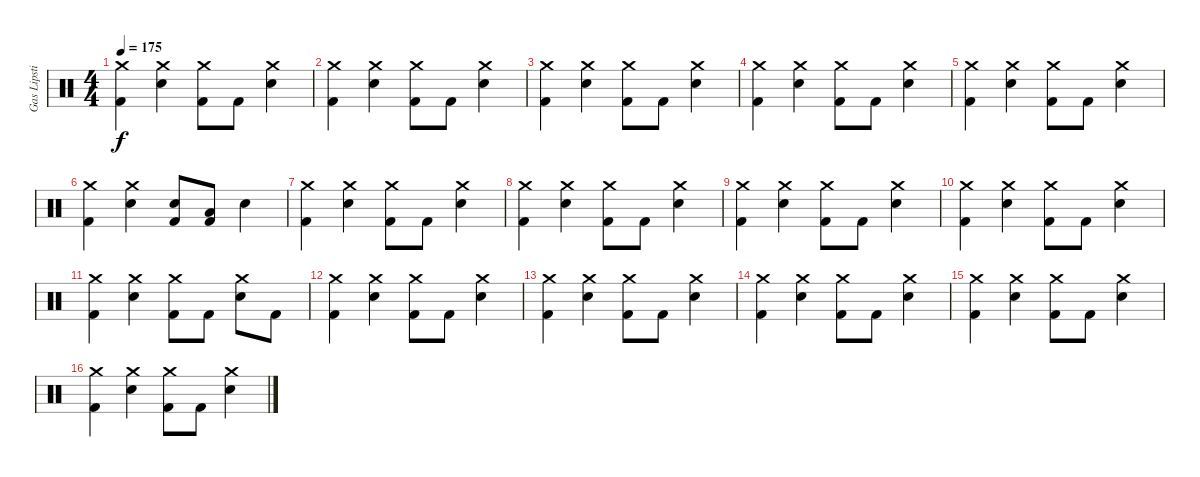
\track ("Gas Lipstick" "Gas Lipsti") {instrument percussion}
\staff {score}
\articulation defaults
\ts (4 4)
\tempo 175
\clef neutral
\ks c
("Kick (hit) 2" "Crash medium (hit)").4{dy f} ("Snare (hit) 2" "Crash medium (hit)").4 ("Kick (hit) 2" "Crash medium (hit)").8 "Kick (hit) 2".8 ("Snare (hit) 2" "Crash medium (hit)").4 |
("Kick (hit) 2" "Crash medium (hit)").4 ("Snare (hit) 2" "Crash medium (hit)").4 ("Kick (hit) 2" "Crash medium (hit)").8 "Kick (hit) 2".8 ("Snare (hit) 2" "Crash medium (hit)").4 |
("Kick (hit) 2" "Crash medium (hit)").4 ("Snare (hit) 2" "Crash medium (hit)").4 ("Kick (hit) 2" "Crash medium (hit)").8 "Kick (hit) 2".8 ("Snare (hit) 2" "Crash medium (hit)").4 |
("Kick (hit) 2" "Crash medium (hit)").4 ("Snare (hit) 2" "Crash medium (hit)").4 ("Kick (hit) 2" "Crash medium (hit)").8 "Kick (hit) 2".8 ("Snare (hit) 2" "Crash medium (hit)").4 |
("Kick (hit) 2" "Crash medium (hit)").4 ("Snare (hit) 2" "Crash medium (hit)").4 ("Kick (hit) 2" "Crash medium (hit)").8 "Kick (hit) 2".8 ("Snare (hit) 2" "Crash medium (hit)").4 |
("Kick (hit) 2" "Crash medium (hit)").4 ("Snare (hit) 2" "Crash medium (hit)").4 ("Kick (hit) 2" "Snare (hit) 2").8 ("Kick (hit) 2" "Low Floor Tom (hit)").8 "Snare (hit) 2".4 |
("Kick (hit) 2" "Crash medium (hit)").4 ("Snare (hit) 2" "Crash medium (hit)").4 ("Kick (hit) 2" "Crash medium (hit)").8 "Kick (hit) 2".8 ("Snare (hit) 2" "Crash medium (hit)").4 |
("Kick (hit) 2" "Crash medium (hit)").4 ("Snare (hit) 2" "Crash medium (hit)").4 ("Kick (hit) 2" "Crash medium (hit)").8 "Kick (hit) 2".8 ("Snare (hit) 2" "Crash medium (hit)").4 |
("Kick (hit) 2" "Crash medium (hit)").4 ("Snare (hit) 2" "Crash medium (hit)").4 ("Kick (hit) 2" "Crash medium (hit)").8 "Kick (hit) 2".8 ("Snare (hit) 2" "Crash medium (hit)").4 |
("Kick (hit) 2" "Crash medium (hit)").4 ("Snare (hit) 2" "Crash medium (hit)").4 ("Kick (hit) 2" "Crash medium (hit)").8 "Kick (hit) 2".8 ("Snare (hit) 2" "Crash medium (hit)").4 |
("Kick (hit) 2" "Crash medium (hit)").4 ("Snare (hit) 2" "Crash medium (hit)").4 ("Kick (hit) 2" "Crash medium (hit)").8 "Kick (hit) 2".8 ("Snare (hit) 2" "Crash medium (hit)").8 "Kick (hit) 2".8 |
("Kick (hit) 2" "Crash medium (hit)").4 ("Snare (hit) 2" "Crash medium (hit)").4 ("Kick (hit) 2" "Crash medium (hit)").8 "Kick (hit) 2".8 ("Snare (hit) 2" "Crash medium (hit)").4 |
("Kick (hit) 2" "Crash medium (hit)").4 ("Snare (hit) 2" "Crash medium (hit)").4 ("Kick (hit) 2" "Crash medium (hit)").8 "Kick (hit) 2".8 ("Snare (hit) 2" "Crash medium (hit)").4 |
("Kick (hit) 2" "Crash medium (hit)").4 ("Snare (hit) 2" "Crash medium (hit)").4 ("Kick (hit) 2" "Crash medium (hit)").8 "Kick (hit) 2".8 ("Snare (hit) 2" "Crash medium (hit)").4 |
("Kick (hit) 2" "Crash medium (hit)").4 ("Snare (hit) 2" "Crash medium (hit)").4 ("Kick (hit) 2" "Crash medium (hit)").8 "Kick (hit) 2".8 ("Snare (hit) 2" "Crash medium (hit)").4 |
("Kick (hit) 2" "Crash medium (hit)").4 ("Snare (hit) 2" "Crash medium (hit)").4 ("Kick (hit) 2" "Crash medium (hit)").8 "Kick (hit) 2".8 ("Snare (hit) 2" "Crash medium (hit)").4
